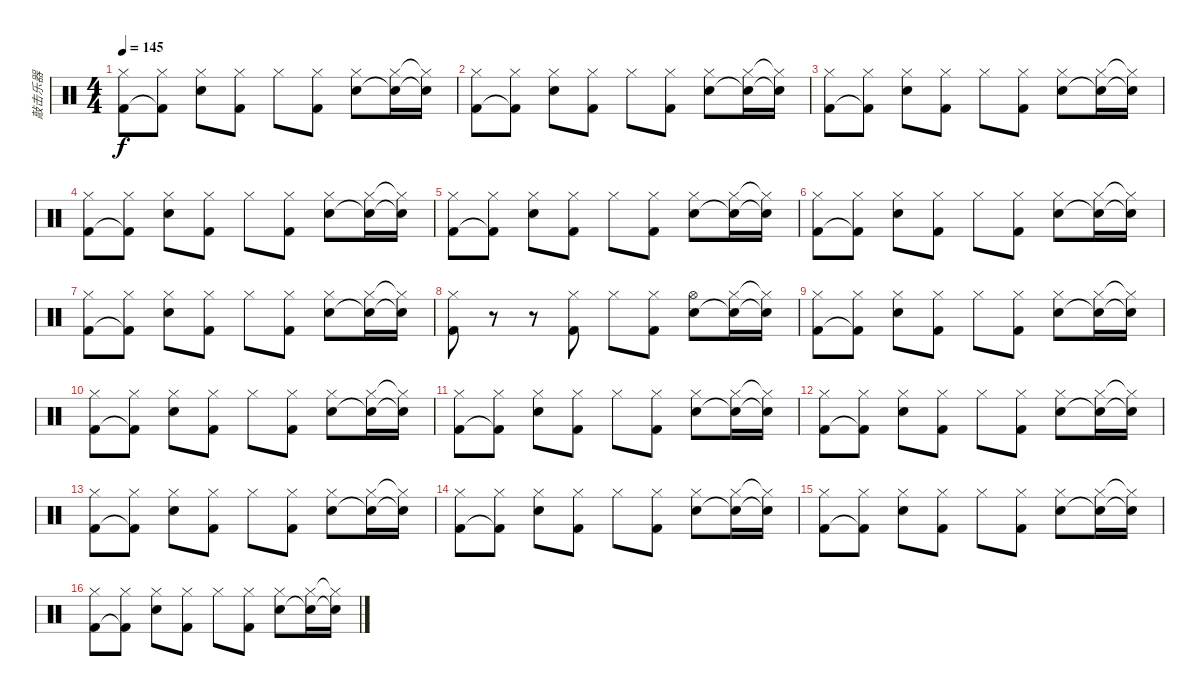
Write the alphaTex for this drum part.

\track ("敲击乐器" "敲击乐器") {instrument percussion}
\staff {score}
\articulation defaults
\ts (4 4)
\tempo 145
\clef neutral
\ks c
("Hi-Hat (closed)" "Kick (hit) 2").8{dy f} ("Hi-Hat (closed)" "Kick (hit) 2"{t}).8 ("Hi-Hat (closed)" "Snare (hit) 2").8 ("Hi-Hat (closed)" "Kick (hit) 2").8 "Hi-Hat (closed)".8 ("Hi-Hat (closed)" "Kick (hit) 2").8 ("Hi-Hat (closed)" "Snare (hit) 2").8 ("Hi-Hat (closed)" "Snare (hit) 2"{t}).16 ("Hi-Hat (closed)"{t} "Snare (hit) 2"{t}).16 |
("Hi-Hat (closed)" "Kick (hit) 2").8 ("Hi-Hat (closed)" "Kick (hit) 2"{t}).8 ("Hi-Hat (closed)" "Snare (hit) 2").8 ("Hi-Hat (closed)" "Kick (hit) 2").8 "Hi-Hat (closed)".8 ("Hi-Hat (closed)" "Kick (hit) 2").8 ("Hi-Hat (closed)" "Snare (hit) 2").8 ("Hi-Hat (closed)" "Snare (hit) 2"{t}).16 ("Hi-Hat (closed)"{t} "Snare (hit) 2"{t}).16 |
("Hi-Hat (closed)" "Kick (hit) 2").8 ("Hi-Hat (closed)" "Kick (hit) 2"{t}).8 ("Hi-Hat (closed)" "Snare (hit) 2").8 ("Hi-Hat (closed)" "Kick (hit) 2").8 "Hi-Hat (closed)".8 ("Hi-Hat (closed)" "Kick (hit) 2").8 ("Hi-Hat (closed)" "Snare (hit) 2").8 ("Hi-Hat (closed)" "Snare (hit) 2"{t}).16 ("Hi-Hat (closed)"{t} "Snare (hit) 2"{t}).16 |
("Hi-Hat (closed)" "Kick (hit) 2").8 ("Hi-Hat (closed)" "Kick (hit) 2"{t}).8 ("Hi-Hat (closed)" "Snare (hit) 2").8 ("Hi-Hat (closed)" "Kick (hit) 2").8 "Hi-Hat (closed)".8 ("Hi-Hat (closed)" "Kick (hit) 2").8 ("Hi-Hat (closed)" "Snare (hit) 2").8 ("Hi-Hat (closed)" "Snare (hit) 2"{t}).16 ("Hi-Hat (closed)"{t} "Snare (hit) 2"{t}).16 |
("Hi-Hat (closed)" "Kick (hit) 2").8 ("Hi-Hat (closed)" "Kick (hit) 2"{t}).8 ("Hi-Hat (closed)" "Snare (hit) 2").8 ("Hi-Hat (closed)" "Kick (hit) 2").8 "Hi-Hat (closed)".8 ("Hi-Hat (closed)" "Kick (hit) 2").8 ("Hi-Hat (closed)" "Snare (hit) 2").8 ("Hi-Hat (closed)" "Snare (hit) 2"{t}).16 ("Hi-Hat (closed)"{t} "Snare (hit) 2"{t}).16 |
("Hi-Hat (closed)" "Kick (hit) 2").8 ("Hi-Hat (closed)" "Kick (hit) 2"{t}).8 ("Hi-Hat (closed)" "Snare (hit) 2").8 ("Hi-Hat (closed)" "Kick (hit) 2").8 "Hi-Hat (closed)".8 ("Hi-Hat (closed)" "Kick (hit) 2").8 ("Hi-Hat (closed)" "Snare (hit) 2").8 ("Hi-Hat (closed)" "Snare (hit) 2"{t}).16 ("Hi-Hat (closed)"{t} "Snare (hit) 2"{t}).16 |
("Hi-Hat (closed)" "Kick (hit) 2").8 ("Hi-Hat (closed)" "Kick (hit) 2"{t}).8 ("Hi-Hat (closed)" "Snare (hit) 2").8 ("Hi-Hat (closed)" "Kick (hit) 2").8 "Hi-Hat (closed)".8 ("Hi-Hat (closed)" "Kick (hit) 2").8 ("Hi-Hat (closed)" "Snare (hit) 2").8 ("Hi-Hat (closed)" "Snare (hit) 2"{t}).16 ("Hi-Hat (closed)"{t} "Snare (hit) 2"{t}).16 |
("Hi-Hat (closed)" "Kick (hit) 2").8 r.8 r.8 ("Hi-Hat (closed)" "Kick (hit) 2").8 "Hi-Hat (closed)".8 ("Hi-Hat (closed)" "Kick (hit) 2").8 ("Hi-Hat (open)" "Snare (hit) 2").8 ("Hi-Hat (closed)" "Snare (hit) 2"{t}).16 ("Hi-Hat (closed)"{t} "Snare (hit) 2"{t}).16 |
("Hi-Hat (closed)" "Kick (hit) 2").8 ("Hi-Hat (closed)" "Kick (hit) 2"{t}).8 ("Hi-Hat (closed)" "Snare (hit) 2").8 ("Hi-Hat (closed)" "Kick (hit) 2").8 "Hi-Hat (closed)".8 ("Hi-Hat (closed)" "Kick (hit) 2").8 ("Hi-Hat (closed)" "Snare (hit) 2").8 ("Hi-Hat (closed)" "Snare (hit) 2"{t}).16 ("Hi-Hat (closed)"{t} "Snare (hit) 2"{t}).16 |
("Hi-Hat (closed)" "Kick (hit) 2").8 ("Hi-Hat (closed)" "Kick (hit) 2"{t}).8 ("Hi-Hat (closed)" "Snare (hit) 2").8 ("Hi-Hat (closed)" "Kick (hit) 2").8 "Hi-Hat (closed)".8 ("Hi-Hat (closed)" "Kick (hit) 2").8 ("Hi-Hat (closed)" "Snare (hit) 2").8 ("Hi-Hat (closed)" "Snare (hit) 2"{t}).16 ("Hi-Hat (closed)"{t} "Snare (hit) 2"{t}).16 |
("Hi-Hat (closed)" "Kick (hit) 2").8 ("Hi-Hat (closed)" "Kick (hit) 2"{t}).8 ("Hi-Hat (closed)" "Snare (hit) 2").8 ("Hi-Hat (closed)" "Kick (hit) 2").8 "Hi-Hat (closed)".8 ("Hi-Hat (closed)" "Kick (hit) 2").8 ("Hi-Hat (closed)" "Snare (hit) 2").8 ("Hi-Hat (closed)" "Snare (hit) 2"{t}).16 ("Hi-Hat (closed)"{t} "Snare (hit) 2"{t}).16 |
("Hi-Hat (closed)" "Kick (hit) 2").8 ("Hi-Hat (closed)" "Kick (hit) 2"{t}).8 ("Hi-Hat (closed)" "Snare (hit) 2").8 ("Hi-Hat (closed)" "Kick (hit) 2").8 "Hi-Hat (closed)".8 ("Hi-Hat (closed)" "Kick (hit) 2").8 ("Hi-Hat (closed)" "Snare (hit) 2").8 ("Hi-Hat (closed)" "Snare (hit) 2"{t}).16 ("Hi-Hat (closed)"{t} "Snare (hit) 2"{t}).16 |
("Hi-Hat (closed)" "Kick (hit) 2").8 ("Hi-Hat (closed)" "Kick (hit) 2"{t}).8 ("Hi-Hat (closed)" "Snare (hit) 2").8 ("Hi-Hat (closed)" "Kick (hit) 2").8 "Hi-Hat (closed)".8 ("Hi-Hat (closed)" "Kick (hit) 2").8 ("Hi-Hat (closed)" "Snare (hit) 2").8 ("Hi-Hat (closed)" "Snare (hit) 2"{t}).16 ("Hi-Hat (closed)"{t} "Snare (hit) 2"{t}).16 |
("Hi-Hat (closed)" "Kick (hit) 2").8 ("Hi-Hat (closed)" "Kick (hit) 2"{t}).8 ("Hi-Hat (closed)" "Snare (hit) 2").8 ("Hi-Hat (closed)" "Kick (hit) 2").8 "Hi-Hat (closed)".8 ("Hi-Hat (closed)" "Kick (hit) 2").8 ("Hi-Hat (closed)" "Snare (hit) 2").8 ("Hi-Hat (closed)" "Snare (hit) 2"{t}).16 ("Hi-Hat (closed)"{t} "Snare (hit) 2"{t}).16 |
("Hi-Hat (closed)" "Kick (hit) 2").8 ("Hi-Hat (closed)" "Kick (hit) 2"{t}).8 ("Hi-Hat (closed)" "Snare (hit) 2").8 ("Hi-Hat (closed)" "Kick (hit) 2").8 "Hi-Hat (closed)".8 ("Hi-Hat (closed)" "Kick (hit) 2").8 ("Hi-Hat (closed)" "Snare (hit) 2").8 ("Hi-Hat (closed)" "Snare (hit) 2"{t}).16 ("Hi-Hat (closed)"{t} "Snare (hit) 2"{t}).16 |
("Hi-Hat (closed)" "Kick (hit) 2").8 ("Hi-Hat (closed)" "Kick (hit) 2"{t}).8 ("Hi-Hat (closed)" "Snare (hit) 2").8 ("Hi-Hat (closed)" "Kick (hit) 2").8 "Hi-Hat (closed)".8 ("Hi-Hat (closed)" "Kick (hit) 2").8 ("Hi-Hat (closed)" "Snare (hit) 2").8 ("Hi-Hat (closed)" "Snare (hit) 2"{t}).16 ("Hi-Hat (closed)"{t} "Snare (hit) 2"{t}).16
